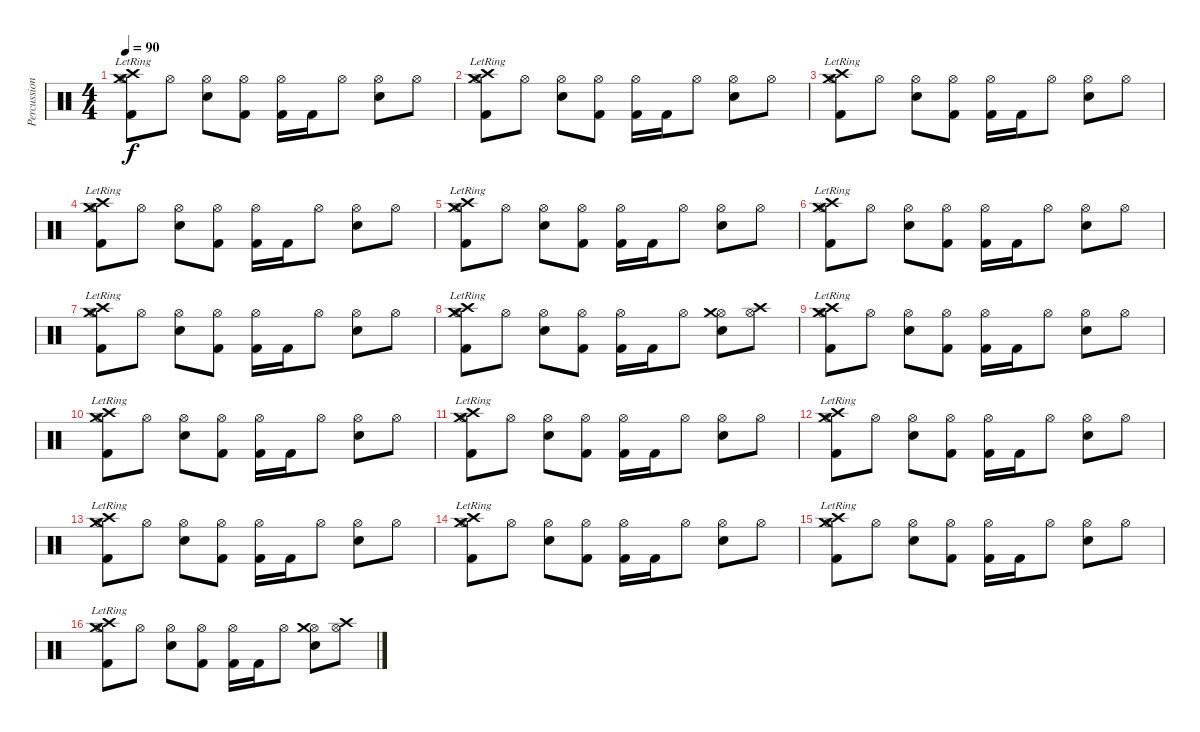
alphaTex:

\track ("Percussions" "Percussion") {instrument percussion}
\staff {score}
\articulation defaults
\ts (4 4)
\tempo 90
\clef neutral
\ks c
("Kick (hit) 2" "Hi-Hat (open)" "Crash medium (hit)"{lr} "Crash high (hit)").8{dy f} "Hi-Hat (open)".8 ("Snare (hit) 2" "Hi-Hat (open)").8 ("Kick (hit) 2" "Hi-Hat (open)").8 ("Kick (hit) 2" "Hi-Hat (open)").16 "Kick (hit) 2".16 "Hi-Hat (open)".8 ("Snare (hit) 2" "Hi-Hat (open)").8 "Hi-Hat (open)".8 |
("Kick (hit) 2" "Hi-Hat (open)" "Crash medium (hit)"{lr} "Crash high (hit)").8 "Hi-Hat (open)".8 ("Snare (hit) 2" "Hi-Hat (open)").8 ("Kick (hit) 2" "Hi-Hat (open)").8 ("Kick (hit) 2" "Hi-Hat (open)").16 "Kick (hit) 2".16 "Hi-Hat (open)".8 ("Snare (hit) 2" "Hi-Hat (open)").8 "Hi-Hat (open)".8 |
("Kick (hit) 2" "Hi-Hat (open)" "Crash medium (hit)"{lr} "Crash high (hit)").8 "Hi-Hat (open)".8 ("Snare (hit) 2" "Hi-Hat (open)").8 ("Kick (hit) 2" "Hi-Hat (open)").8 ("Kick (hit) 2" "Hi-Hat (open)").16 "Kick (hit) 2".16 "Hi-Hat (open)".8 ("Snare (hit) 2" "Hi-Hat (open)").8 "Hi-Hat (open)".8 |
("Kick (hit) 2" "Hi-Hat (open)" "Crash medium (hit)"{lr} "Crash high (hit)").8 "Hi-Hat (open)".8 ("Snare (hit) 2" "Hi-Hat (open)").8 ("Kick (hit) 2" "Hi-Hat (open)").8 ("Kick (hit) 2" "Hi-Hat (open)").16 "Kick (hit) 2".16 "Hi-Hat (open)".8 ("Snare (hit) 2" "Hi-Hat (open)").8 "Hi-Hat (open)".8 |
("Kick (hit) 2" "Hi-Hat (open)" "Crash medium (hit)"{lr} "Crash high (hit)").8 "Hi-Hat (open)".8 ("Snare (hit) 2" "Hi-Hat (open)").8 ("Kick (hit) 2" "Hi-Hat (open)").8 ("Kick (hit) 2" "Hi-Hat (open)").16 "Kick (hit) 2".16 "Hi-Hat (open)".8 ("Snare (hit) 2" "Hi-Hat (open)").8 "Hi-Hat (open)".8 |
("Kick (hit) 2" "Hi-Hat (open)" "Crash medium (hit)"{lr} "Crash high (hit)").8 "Hi-Hat (open)".8 ("Snare (hit) 2" "Hi-Hat (open)").8 ("Kick (hit) 2" "Hi-Hat (open)").8 ("Kick (hit) 2" "Hi-Hat (open)").16 "Kick (hit) 2".16 "Hi-Hat (open)".8 ("Snare (hit) 2" "Hi-Hat (open)").8 "Hi-Hat (open)".8 |
("Kick (hit) 2" "Hi-Hat (open)" "Crash medium (hit)"{lr} "Crash high (hit)").8 "Hi-Hat (open)".8 ("Snare (hit) 2" "Hi-Hat (open)").8 ("Kick (hit) 2" "Hi-Hat (open)").8 ("Kick (hit) 2" "Hi-Hat (open)").16 "Kick (hit) 2".16 "Hi-Hat (open)".8 ("Snare (hit) 2" "Hi-Hat (open)").8 "Hi-Hat (open)".8 |
("Kick (hit) 2" "Hi-Hat (open)" "Crash medium (hit)"{lr} "Crash high (hit)").8 "Hi-Hat (open)".8 ("Snare (hit) 2" "Hi-Hat (open)").8 ("Kick (hit) 2" "Hi-Hat (open)").8 ("Kick (hit) 2" "Hi-Hat (open)").16 "Kick (hit) 2".16 "Hi-Hat (open)".8 ("Snare (hit) 2" "Hi-Hat (open)" "Crash medium (hit)").8 ("Hi-Hat (open)" "Crash high (hit)").8 |
("Kick (hit) 2" "Hi-Hat (open)" "Crash medium (hit)"{lr} "Crash high (hit)").8 "Hi-Hat (open)".8 ("Snare (hit) 2" "Hi-Hat (open)").8 ("Kick (hit) 2" "Hi-Hat (open)").8 ("Kick (hit) 2" "Hi-Hat (open)").16 "Kick (hit) 2".16 "Hi-Hat (open)".8 ("Snare (hit) 2" "Hi-Hat (open)").8 "Hi-Hat (open)".8 |
("Kick (hit) 2" "Hi-Hat (open)" "Crash medium (hit)"{lr} "Crash high (hit)").8 "Hi-Hat (open)".8 ("Snare (hit) 2" "Hi-Hat (open)").8 ("Kick (hit) 2" "Hi-Hat (open)").8 ("Kick (hit) 2" "Hi-Hat (open)").16 "Kick (hit) 2".16 "Hi-Hat (open)".8 ("Snare (hit) 2" "Hi-Hat (open)").8 "Hi-Hat (open)".8 |
("Kick (hit) 2" "Hi-Hat (open)" "Crash medium (hit)"{lr} "Crash high (hit)").8 "Hi-Hat (open)".8 ("Snare (hit) 2" "Hi-Hat (open)").8 ("Kick (hit) 2" "Hi-Hat (open)").8 ("Kick (hit) 2" "Hi-Hat (open)").16 "Kick (hit) 2".16 "Hi-Hat (open)".8 ("Snare (hit) 2" "Hi-Hat (open)").8 "Hi-Hat (open)".8 |
("Kick (hit) 2" "Hi-Hat (open)" "Crash medium (hit)"{lr} "Crash high (hit)").8 "Hi-Hat (open)".8 ("Snare (hit) 2" "Hi-Hat (open)").8 ("Kick (hit) 2" "Hi-Hat (open)").8 ("Kick (hit) 2" "Hi-Hat (open)").16 "Kick (hit) 2".16 "Hi-Hat (open)".8 ("Snare (hit) 2" "Hi-Hat (open)").8 "Hi-Hat (open)".8 |
("Kick (hit) 2" "Hi-Hat (open)" "Crash medium (hit)"{lr} "Crash high (hit)").8 "Hi-Hat (open)".8 ("Snare (hit) 2" "Hi-Hat (open)").8 ("Kick (hit) 2" "Hi-Hat (open)").8 ("Kick (hit) 2" "Hi-Hat (open)").16 "Kick (hit) 2".16 "Hi-Hat (open)".8 ("Snare (hit) 2" "Hi-Hat (open)").8 "Hi-Hat (open)".8 |
("Kick (hit) 2" "Hi-Hat (open)" "Crash medium (hit)"{lr} "Crash high (hit)").8 "Hi-Hat (open)".8 ("Snare (hit) 2" "Hi-Hat (open)").8 ("Kick (hit) 2" "Hi-Hat (open)").8 ("Kick (hit) 2" "Hi-Hat (open)").16 "Kick (hit) 2".16 "Hi-Hat (open)".8 ("Snare (hit) 2" "Hi-Hat (open)").8 "Hi-Hat (open)".8 |
("Kick (hit) 2" "Hi-Hat (open)" "Crash medium (hit)"{lr} "Crash high (hit)").8 "Hi-Hat (open)".8 ("Snare (hit) 2" "Hi-Hat (open)").8 ("Kick (hit) 2" "Hi-Hat (open)").8 ("Kick (hit) 2" "Hi-Hat (open)").16 "Kick (hit) 2".16 "Hi-Hat (open)".8 ("Snare (hit) 2" "Hi-Hat (open)").8 "Hi-Hat (open)".8 |
("Kick (hit) 2" "Hi-Hat (open)" "Crash medium (hit)"{lr} "Crash high (hit)").8 "Hi-Hat (open)".8 ("Snare (hit) 2" "Hi-Hat (open)").8 ("Kick (hit) 2" "Hi-Hat (open)").8 ("Kick (hit) 2" "Hi-Hat (open)").16 "Kick (hit) 2".16 "Hi-Hat (open)".8 ("Snare (hit) 2" "Hi-Hat (open)" "Crash medium (hit)").8 ("Hi-Hat (open)" "Crash high (hit)").8
